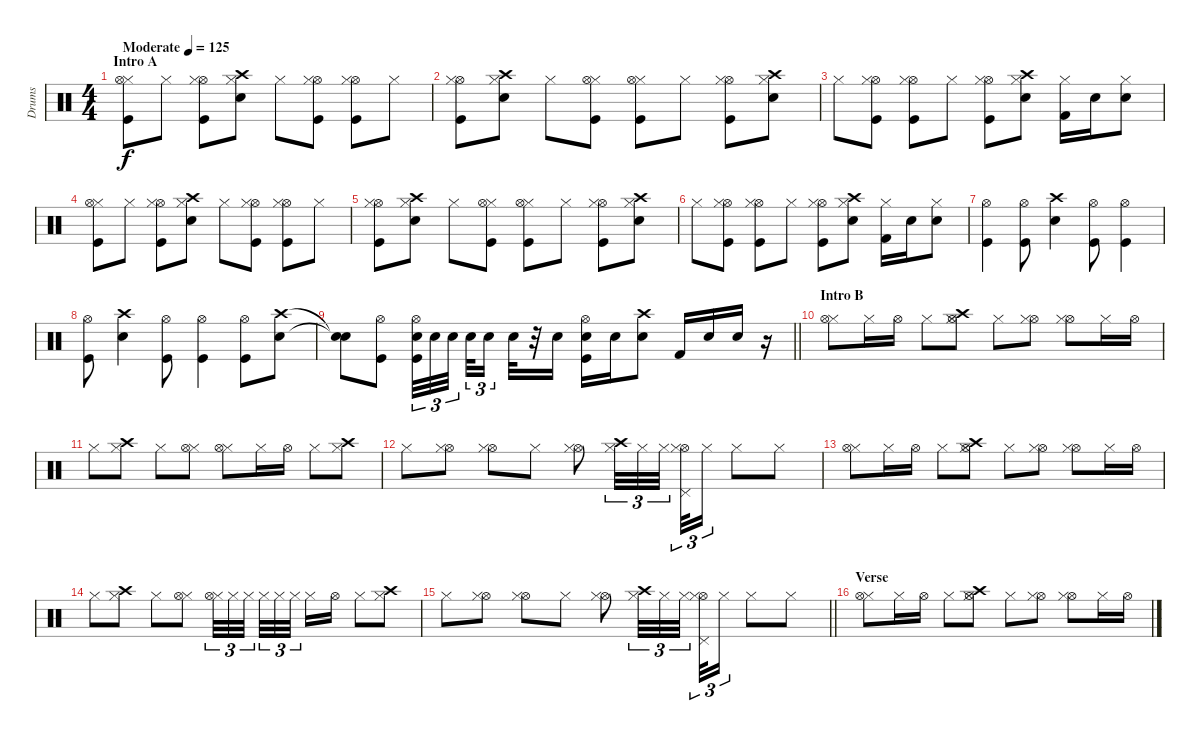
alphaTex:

\track ("Drums" "Drums") {instrument percussion}
\staff {score}
\articulation defaults
\ts (4 4)
\section ("" "Intro A")
\tempo (125 "Moderate")
\clef neutral
\ks c
("Hi-Hat (closed)" "Hi-Hat (open)" "Kick (hit)").8{dy f} "Hi-Hat (closed)".8 ("Hi-Hat (open)" "Kick (hit)" "Hi-Hat (closed)").8 ("Electric Snare (hit)" "Crash high (hit)" "Hi-Hat (closed)").8 "Hi-Hat (closed)".8 ("Kick (hit)" "Hi-Hat (open)" "Hi-Hat (closed)").8 ("Hi-Hat (open)" "Kick (hit)" "Hi-Hat (closed)").8 "Hi-Hat (closed)".8 |
("Hi-Hat (open)" "Kick (hit)" "Hi-Hat (closed)").8 ("Crash high (hit)" "Electric Snare (hit)" "Hi-Hat (closed)").8 "Hi-Hat (closed)".8 ("Kick (hit)" "Hi-Hat (closed)" "Hi-Hat (open)").8 ("Hi-Hat (closed)" "Hi-Hat (open)" "Kick (hit)").8 "Hi-Hat (closed)".8 ("Hi-Hat (open)" "Kick (hit)" "Hi-Hat (closed)").8 ("Crash high (hit)" "Hi-Hat (closed)" "Electric Snare (hit)").8 |
"Hi-Hat (closed)".8 ("Kick (hit)" "Hi-Hat (open)" "Hi-Hat (closed)").8 ("Hi-Hat (open)" "Kick (hit)" "Hi-Hat (closed)").8 "Hi-Hat (closed)".8 ("Kick (hit)" "Hi-Hat (open)" "Hi-Hat (closed)").8 ("Electric Snare (hit)" "Crash high (hit)" "Hi-Hat (closed)").8 ("Kick (hit) 2" "Hi-Hat (closed)").16 "Electric Snare (hit)".16 ("Electric Snare (hit)" "Hi-Hat (closed)").8 |
("Hi-Hat (closed)" "Hi-Hat (open)" "Kick (hit)").8 "Hi-Hat (closed)".8 ("Hi-Hat (open)" "Kick (hit)" "Hi-Hat (closed)").8 ("Electric Snare (hit)" "Crash high (hit)" "Hi-Hat (closed)").8 "Hi-Hat (closed)".8 ("Kick (hit)" "Hi-Hat (open)" "Hi-Hat (closed)").8 ("Hi-Hat (open)" "Kick (hit)" "Hi-Hat (closed)").8 "Hi-Hat (closed)".8 |
("Hi-Hat (open)" "Kick (hit)" "Hi-Hat (closed)").8 ("Crash high (hit)" "Electric Snare (hit)" "Hi-Hat (closed)").8 "Hi-Hat (closed)".8 ("Kick (hit)" "Hi-Hat (closed)" "Hi-Hat (open)").8 ("Hi-Hat (closed)" "Hi-Hat (open)" "Kick (hit)").8 "Hi-Hat (closed)".8 ("Hi-Hat (open)" "Kick (hit)" "Hi-Hat (closed)").8 ("Crash high (hit)" "Hi-Hat (closed)" "Electric Snare (hit)").8 |
"Hi-Hat (closed)".8 ("Kick (hit)" "Hi-Hat (open)" "Hi-Hat (closed)").8 ("Hi-Hat (open)" "Kick (hit)" "Hi-Hat (closed)").8 "Hi-Hat (closed)".8 ("Kick (hit)" "Hi-Hat (open)" "Hi-Hat (closed)").8 ("Electric Snare (hit)" "Crash high (hit)" "Hi-Hat (closed)").8 ("Kick (hit) 2" "Hi-Hat (closed)").16 "Electric Snare (hit)".16 ("Electric Snare (hit)" "Hi-Hat (closed)").8 |
("Kick (hit)" "Hi-Hat (open)").4 ("Hi-Hat (open)" "Kick (hit)").8 ("Crash high (hit)" "Electric Snare (hit)").4 ("Kick (hit)" "Hi-Hat (open)").8 ("Hi-Hat (open)" "Kick (hit)").4 |
("Hi-Hat (open)" "Kick (hit)").8 ("Crash high (hit)" "Electric Snare (hit)").4 ("Kick (hit)" "Hi-Hat (open)").8 ("Hi-Hat (open)" "Kick (hit)").4 ("Hi-Hat (open)" "Kick (hit)").8 ("Electric Snare (hit)" "Crash high (hit)").8 |
\barLineRight lightlight
("Snare (hit)"{t} "Snare (hit)"{t}).8 ("Hi-Hat (open)" "Kick (hit)").8 ("Hi-Hat (open)" "Electric Snare (hit)" "Kick (hit)").32{tu (3 2)} "Electric Snare (hit)".32{tu (3 2)} "Electric Snare (hit)".32{tu (3 2) beam splitsecondary} "Electric Snare (hit)".32{tu (3 2)} "Electric Snare (hit)".16{tu (3 2) beam splitsecondary} "Electric Snare (hit)".32 r.32 "Electric Snare (hit)".16 ("Hi-Hat (open)" "Kick (hit)" "Electric Snare (hit)").16 "Electric Snare (hit)".16 ("Crash high (hit)" "Electric Snare (hit)").8 "Kick (hit) 2".16 "Electric Snare (hit)".16 "Electric Snare (hit)".16 r.16 |
\section ("" "Intro B")
("Hi-Hat (closed)" "Hi-Hat (open)").8 "Hi-Hat (closed)".16 "Hi-Hat (open)".16 "Hi-Hat (closed)".8 ("Crash high (hit)" "Hi-Hat (closed)" "Hi-Hat (open)").8 "Hi-Hat (closed)".8 ("Hi-Hat (open)" "Hi-Hat (closed)").8 ("Hi-Hat (open)" "Hi-Hat (closed)").8 "Hi-Hat (closed)".16 "Hi-Hat (open)".16 |
"Hi-Hat (closed)".8 ("Crash high (hit)" "Hi-Hat (closed)").8 "Hi-Hat (closed)".8 ("Hi-Hat (closed)" "Hi-Hat (open)").8 ("Hi-Hat (closed)" "Hi-Hat (open)").8 "Hi-Hat (closed)".16 "Hi-Hat (open)".16 "Hi-Hat (closed)".8 ("Crash high (hit)" "Hi-Hat (closed)").8 |
"Hi-Hat (closed)".8 ("Hi-Hat (open)" "Hi-Hat (closed)").8 ("Hi-Hat (open)" "Hi-Hat (closed)").8 "Hi-Hat (closed)".8 ("Hi-Hat (open)" "Hi-Hat (closed)").8 ("Crash high (hit)" "Hi-Hat (closed)").32{tu (3 2)} "Hi-Hat (closed)".32{tu (3 2)} "Hi-Hat (closed)".32{tu (3 2) beam splitsecondary} ("Hi-Hat (open)" "Hi-Hat (closed)" "Pedal Hi-Hat (hit)").32{tu (3 2)} "Hi-Hat (closed)".16{tu (3 2)} "Hi-Hat (closed)".8 "Hi-Hat (closed)".8 |
("Hi-Hat (closed)" "Hi-Hat (open)").8 "Hi-Hat (closed)".16 "Hi-Hat (open)".16 "Hi-Hat (closed)".8 ("Crash high (hit)" "Hi-Hat (closed)" "Hi-Hat (open)").8 "Hi-Hat (closed)".8 ("Hi-Hat (open)" "Hi-Hat (closed)").8 ("Hi-Hat (open)" "Hi-Hat (closed)").8 "Hi-Hat (closed)".16 "Hi-Hat (open)".16 |
"Hi-Hat (closed)".8 ("Crash high (hit)" "Hi-Hat (closed)").8 "Hi-Hat (closed)".8 ("Hi-Hat (closed)" "Hi-Hat (open)").8 ("Hi-Hat (closed)" "Hi-Hat (open)").32{tu (3 2)} "Hi-Hat (closed)".32{tu (3 2)} "Hi-Hat (closed)".32{tu (3 2) beam splitsecondary} "Hi-Hat (closed)".32{tu (3 2)} "Hi-Hat (closed)".32{tu (3 2)} "Hi-Hat (closed)".32{tu (3 2) beam splitsecondary} "Hi-Hat (closed)".16 "Hi-Hat (open)".16 "Hi-Hat (closed)".8 ("Crash high (hit)" "Hi-Hat (closed)").8 |
\barLineRight lightlight "Hi-Hat (closed)".8
("Hi-Hat (open)" "Hi-Hat (closed)").8 ("Hi-Hat (open)" "Hi-Hat (closed)").8 "Hi-Hat (closed)".8 ("Hi-Hat (open)" "Hi-Hat (closed)").8 ("Crash high (hit)" "Hi-Hat (closed)").32{tu (3 2)} "Hi-Hat (closed)".32{tu (3 2)} "Hi-Hat (closed)".32{tu (3 2) beam splitsecondary} ("Hi-Hat (open)" "Hi-Hat (closed)" "Pedal Hi-Hat (hit)").32{tu (3 2)} "Hi-Hat (closed)".16{tu (3 2)} "Hi-Hat (closed)".8 "Hi-Hat (closed)".8 |
\section ("" "Verse")
("Hi-Hat (closed)" "Hi-Hat (open)").8 "Hi-Hat (closed)".16 "Hi-Hat (open)".16 "Hi-Hat (closed)".8 ("Crash high (hit)" "Hi-Hat (closed)" "Hi-Hat (open)").8 "Hi-Hat (closed)".8 ("Hi-Hat (open)" "Hi-Hat (closed)").8 ("Hi-Hat (open)" "Hi-Hat (closed)").8 "Hi-Hat (closed)".16 "Hi-Hat (open)".16
